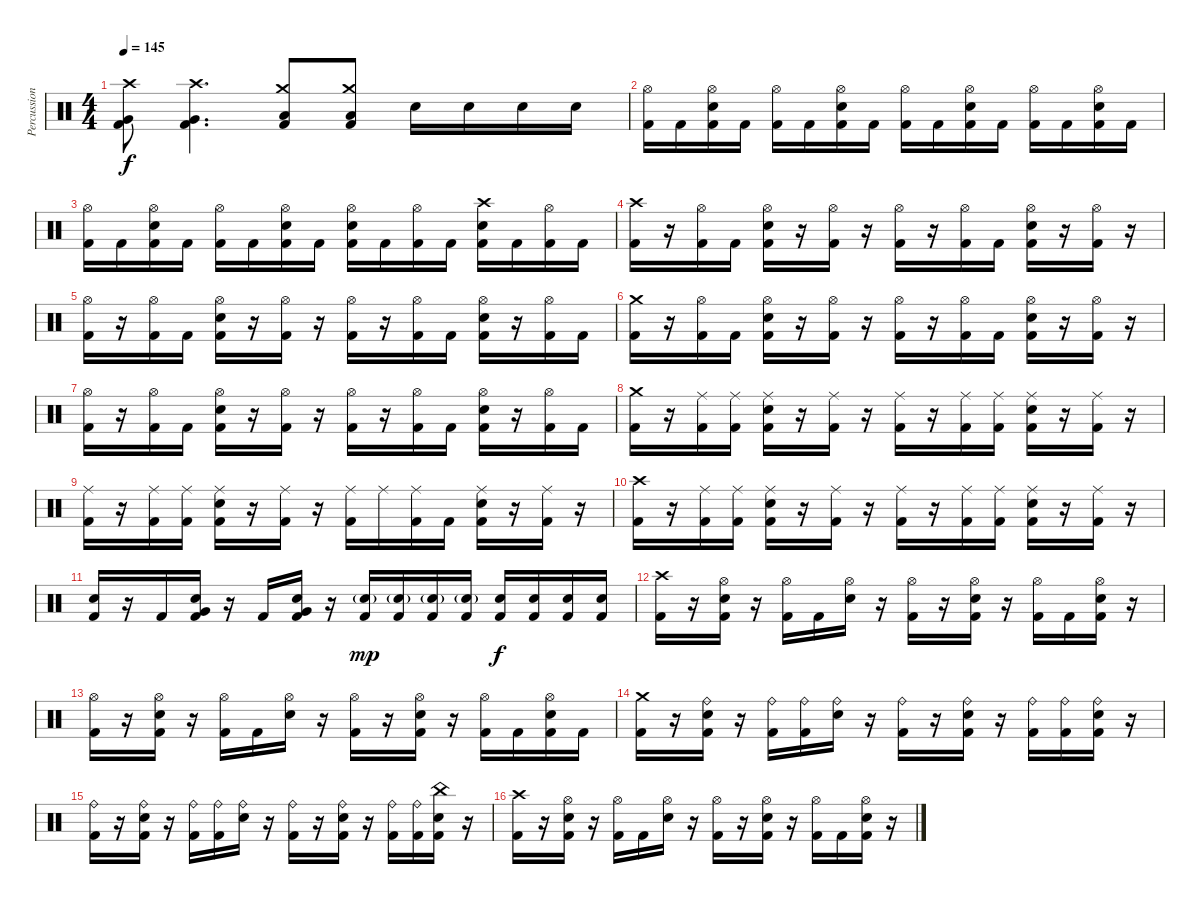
\track ("Percussion" "Percussion") {instrument percussion}
\staff {score}
\articulation defaults
\ts (4 4)
\tempo 145
\clef neutral
\ks c
("Crash high (hit)" "Very Low Tom (hit)" "Kick (hit) 2").8{dy f} ("Crash high (hit)" "Very Low Tom (hit)" "Kick (hit) 2").4{d} ("Crash medium (hit)" "Low Tom (hit)" "Kick (hit) 2").8 ("Crash medium (hit)" "Low Tom (hit)" "Kick (hit) 2").8 "Snare (hit) 2".16 "Snare (hit) 2".16 "Snare (hit) 2".16 "Snare (hit) 2".16 |
("Hi-Hat (open)" "Kick (hit) 2").16 "Kick (hit) 2".16 ("Hi-Hat (open)" "Snare (hit) 2" "Kick (hit) 2").16 "Kick (hit) 2".16 ("Hi-Hat (open)" "Kick (hit) 2").16 "Kick (hit) 2".16 ("Hi-Hat (open)" "Snare (hit) 2" "Kick (hit) 2").16 "Kick (hit) 2".16 ("Hi-Hat (open)" "Kick (hit) 2").16 "Kick (hit) 2".16 ("Hi-Hat (open)" "Snare (hit) 2" "Kick (hit) 2").16 "Kick (hit) 2".16 ("Hi-Hat (open)" "Kick (hit) 2").16 "Kick (hit) 2".16 ("Hi-Hat (open)" "Snare (hit) 2" "Kick (hit) 2").16 "Kick (hit) 2".16 |
("Hi-Hat (open)" "Kick (hit) 2").16 "Kick (hit) 2".16 ("Hi-Hat (open)" "Snare (hit) 2" "Kick (hit) 2").16 "Kick (hit) 2".16 ("Hi-Hat (open)" "Kick (hit) 2").16 "Kick (hit) 2".16 ("Hi-Hat (open)" "Snare (hit) 2" "Kick (hit) 2").16 "Kick (hit) 2".16 ("Hi-Hat (open)" "Snare (hit) 2" "Kick (hit) 2").16 "Kick (hit) 2".16 ("Hi-Hat (open)" "Kick (hit) 2").16 "Kick (hit) 2".16 ("Crash high (hit)" "Snare (hit) 2" "Kick (hit) 2").16 "Kick (hit) 2".16 ("Hi-Hat (open)" "Kick (hit) 2").16 "Kick (hit) 2".16 |
("Crash high (hit)" "Kick (hit) 2").16 r.16 ("Hi-Hat (open)" "Kick (hit) 2").16 "Kick (hit) 2".16 ("Hi-Hat (open)" "Snare (hit) 2" "Kick (hit) 2").16 r.16 ("Hi-Hat (open)" "Kick (hit) 2").16 r.16 ("Hi-Hat (open)" "Kick (hit) 2").16 r.16 ("Hi-Hat (open)" "Kick (hit) 2").16 "Kick (hit) 2".16 ("Hi-Hat (open)" "Snare (hit) 2" "Kick (hit) 2").16 r.16 ("Hi-Hat (open)" "Kick (hit) 2").16 r.16 |
("Hi-Hat (open)" "Kick (hit) 2").16 r.16 ("Hi-Hat (open)" "Kick (hit) 2").16 "Kick (hit) 2".16 ("Hi-Hat (open)" "Snare (hit) 2" "Kick (hit) 2").16 r.16 ("Hi-Hat (open)" "Kick (hit) 2").16 r.16 ("Hi-Hat (open)" "Kick (hit) 2").16 r.16 ("Hi-Hat (open)" "Kick (hit) 2").16 "Kick (hit) 2".16 ("Hi-Hat (open)" "Snare (hit) 2" "Kick (hit) 2").16 r.16 ("Hi-Hat (open)" "Kick (hit) 2").16 "Kick (hit) 2".16 |
("Crash medium (hit)" "Kick (hit) 2").16 r.16 ("Hi-Hat (open)" "Kick (hit) 2").16 "Kick (hit) 2".16 ("Hi-Hat (open)" "Snare (hit) 2" "Kick (hit) 2").16 r.16 ("Hi-Hat (open)" "Kick (hit) 2").16 r.16 ("Hi-Hat (open)" "Kick (hit) 2").16 r.16 ("Hi-Hat (open)" "Kick (hit) 2").16 "Kick (hit) 2".16 ("Hi-Hat (open)" "Snare (hit) 2" "Kick (hit) 2").16 r.16 ("Hi-Hat (open)" "Kick (hit) 2").16 r.16 |
("Hi-Hat (open)" "Kick (hit) 2").16 r.16 ("Hi-Hat (open)" "Kick (hit) 2").16 "Kick (hit) 2".16 ("Hi-Hat (open)" "Snare (hit) 2" "Kick (hit) 2").16 r.16 ("Hi-Hat (open)" "Kick (hit) 2").16 r.16 ("Hi-Hat (open)" "Kick (hit) 2").16 r.16 ("Hi-Hat (open)" "Kick (hit) 2").16 "Kick (hit) 2".16 ("Hi-Hat (open)" "Snare (hit) 2" "Kick (hit) 2").16 r.16 ("Hi-Hat (open)" "Kick (hit) 2").16 "Kick (hit) 2".16 |
("Crash medium (hit)" "Kick (hit) 2").16 r.16 ("Ride (middle)" "Kick (hit) 2").16 ("Ride (middle)" "Kick (hit) 2").16 ("Ride (middle)" "Snare (hit) 2" "Kick (hit) 2").16 r.16 ("Ride (middle)" "Kick (hit) 2").16 r.16 ("Ride (middle)" "Kick (hit) 2").16 r.16 ("Ride (middle)" "Kick (hit) 2").16 ("Ride (middle)" "Kick (hit) 2").16 ("Ride (middle)" "Snare (hit) 2" "Kick (hit) 2").16 r.16 ("Ride (middle)" "Kick (hit) 2").16 r.16 |
("Ride (middle)" "Kick (hit) 2").16 r.16 ("Ride (middle)" "Kick (hit) 2").16 ("Ride (middle)" "Kick (hit) 2").16 ("Ride (middle)" "Snare (hit) 2" "Kick (hit) 2").16 r.16 ("Ride (middle)" "Kick (hit) 2").16 r.16 ("Ride (middle)" "Kick (hit) 2").16 "Ride (middle)".16 ("Ride (middle)" "Kick (hit) 2").16 "Kick (hit) 2".16 ("Ride (middle)" "Snare (hit) 2" "Kick (hit) 2").16 r.16 ("Ride (middle)" "Kick (hit) 2").16 r.16 |
("Crash high (hit)" "Kick (hit) 2").16 r.16 ("Ride (middle)" "Kick (hit) 2").16 ("Ride (middle)" "Kick (hit) 2").16 ("Ride (middle)" "Snare (hit) 2" "Kick (hit) 2").16 r.16 ("Ride (middle)" "Kick (hit) 2").16 r.16 ("Ride (middle)" "Kick (hit) 2").16 r.16 ("Ride (middle)" "Kick (hit) 2").16 ("Ride (middle)" "Kick (hit) 2").16 ("Ride (middle)" "Snare (hit) 2" "Kick (hit) 2").16 r.16 ("Ride (middle)" "Kick (hit) 2").16 r.16 |
("Snare (hit) 2" "Kick (hit) 2").16 r.16 "Kick (hit) 2".16 ("Very Low Tom (hit)" "Snare (hit) 2" "Kick (hit) 2").16 r.16 "Kick (hit) 2".16 ("Very Low Tom (hit)" "Snare (hit) 2" "Kick (hit) 2").16 r.16 ("Snare (hit) 2"{g} "Kick (hit) 2").16{dy mp} ("Snare (hit) 2"{g} "Kick (hit) 2").16 ("Snare (hit) 2"{g} "Kick (hit) 2").16 ("Snare (hit) 2"{g} "Kick (hit) 2").16 ("Snare (hit) 2" "Kick (hit) 2").16{dy f} ("Snare (hit) 2" "Kick (hit) 2").16 ("Snare (hit) 2" "Kick (hit) 2").16 ("Snare (hit) 2" "Kick (hit) 2").16 |
("Crash high (hit)" "Kick (hit) 2").16 r.16 ("Hi-Hat (open)" "Snare (hit) 2" "Kick (hit) 2").16 r.16 ("Hi-Hat (open)" "Kick (hit) 2").16 "Kick (hit) 2".16 ("Hi-Hat (open)" "Snare (hit) 2").16 r.16 ("Hi-Hat (open)" "Kick (hit) 2").16 r.16 ("Hi-Hat (open)" "Snare (hit) 2" "Kick (hit) 2").16 r.16 ("Hi-Hat (open)" "Kick (hit) 2").16 "Kick (hit) 2".16 ("Hi-Hat (open)" "Snare (hit) 2" "Kick (hit) 2").16 r.16 |
("Hi-Hat (open)" "Kick (hit) 2").16 r.16 ("Hi-Hat (open)" "Snare (hit) 2" "Kick (hit) 2").16 r.16 ("Hi-Hat (open)" "Kick (hit) 2").16 "Kick (hit) 2".16 ("Hi-Hat (open)" "Snare (hit) 2").16 r.16 ("Hi-Hat (open)" "Kick (hit) 2").16 r.16 ("Hi-Hat (open)" "Snare (hit) 2" "Kick (hit) 2").16 r.16 ("Hi-Hat (open)" "Kick (hit) 2").16 "Kick (hit) 2".16 ("Hi-Hat (open)" "Snare (hit) 2" "Kick (hit) 2").16 "Kick (hit) 2".16 |
("Crash medium (hit)" "Kick (hit) 2").16 r.16 ("Ride (bell)" "Snare (hit) 2" "Kick (hit) 2").16 r.16 ("Ride (bell)" "Kick (hit) 2").16 ("Ride (bell)" "Kick (hit) 2").16 ("Ride (bell)" "Snare (hit) 2").16 r.16 ("Ride (bell)" "Kick (hit) 2").16 r.16 ("Ride (bell)" "Snare (hit) 2" "Kick (hit) 2").16 r.16 ("Ride (bell)" "Kick (hit) 2").16 ("Ride (bell)" "Kick (hit) 2").16 ("Ride (bell)" "Snare (hit) 2" "Kick (hit) 2").16 r.16 |
("Ride (bell)" "Kick (hit) 2").16 r.16 ("Ride (bell)" "Snare (hit) 2" "Kick (hit) 2").16 r.16 ("Ride (bell)" "Kick (hit) 2").16 ("Ride (bell)" "Kick (hit) 2").16 ("Ride (bell)" "Snare (hit) 2").16 r.16 ("Ride (bell)" "Kick (hit) 2").16 r.16 ("Ride (bell)" "Snare (hit) 2" "Kick (hit) 2").16 r.16 ("Ride (bell)" "Kick (hit) 2").16 ("Ride (bell)" "Kick (hit) 2").16 ("China (hit)" "Snare (hit) 2" "Kick (hit) 2").16 r.16 |
("Crash high (hit)" "Kick (hit) 2").16 r.16 ("Hi-Hat (open)" "Snare (hit) 2" "Kick (hit) 2").16 r.16 ("Hi-Hat (open)" "Kick (hit) 2").16 "Kick (hit) 2".16 ("Hi-Hat (open)" "Snare (hit) 2").16 r.16 ("Hi-Hat (open)" "Kick (hit) 2").16 r.16 ("Hi-Hat (open)" "Snare (hit) 2" "Kick (hit) 2").16 r.16 ("Hi-Hat (open)" "Kick (hit) 2").16 "Kick (hit) 2".16 ("Hi-Hat (open)" "Snare (hit) 2" "Kick (hit) 2").16 r.16
